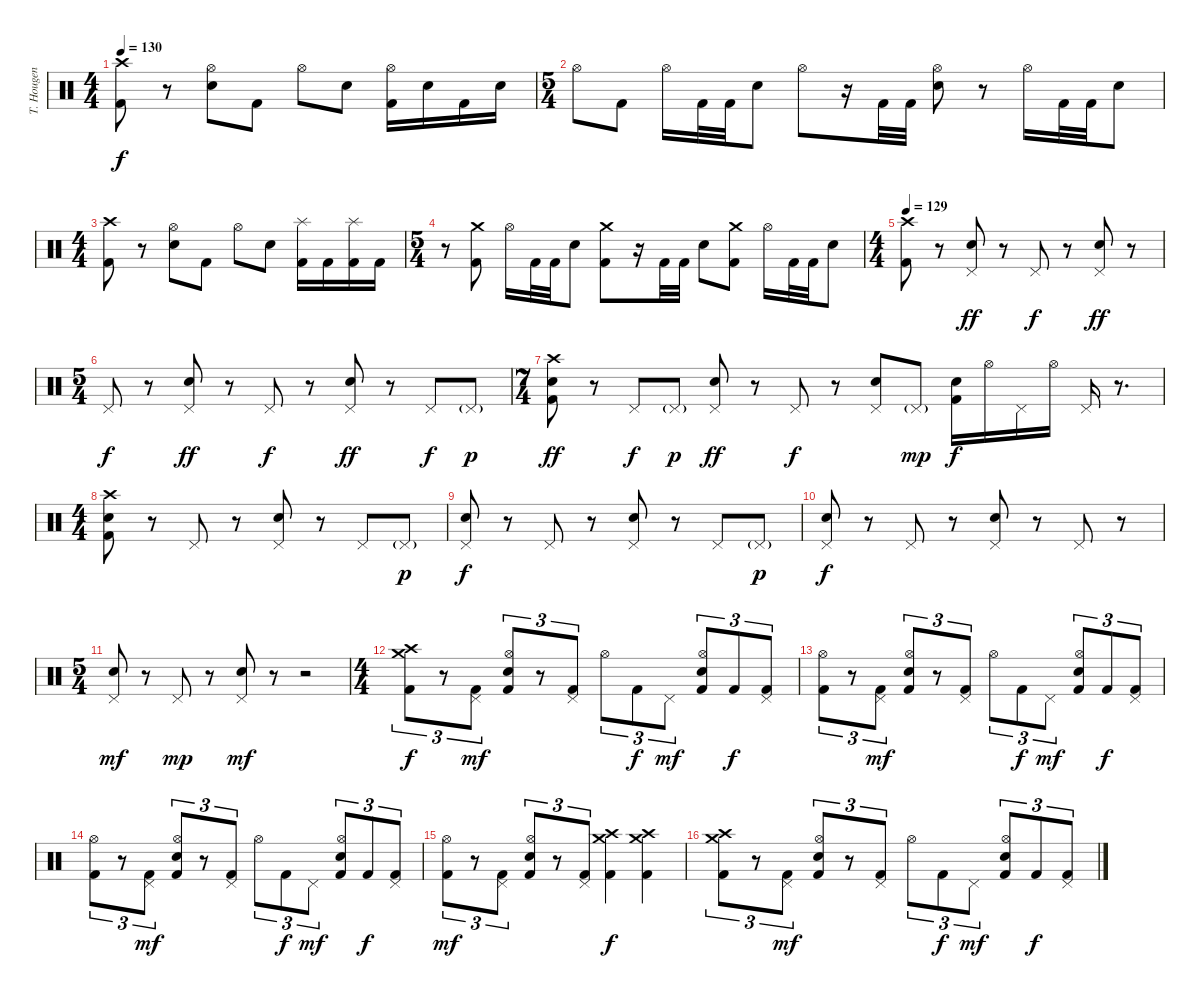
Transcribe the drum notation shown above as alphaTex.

\track ("T. Hougen - Drums" "T. Hougen ") {instrument percussion}
\staff {score}
\articulation defaults
\ts (4 4)
\tempo 130
\clef neutral
\ks c
("Crash high (hit)" "Kick (hit) 2").8{dy f} r.8 ("Hi-Hat (open)" "Electric Snare (hit)").8 "Kick (hit) 2".8 "Hi-Hat (open)".8 "Electric Snare (hit)".8 ("Hi-Hat (open)" "Kick (hit) 2").16 "Electric Snare (hit)".16 "Kick (hit) 2".16 "Electric Snare (hit)".16 |
\ts (5 4)
"Hi-Hat (open)".8 "Kick (hit) 2".8 "Hi-Hat (open)".16 "Kick (hit) 2".32 "Kick (hit) 2".32 "Electric Snare (hit)".8 "Hi-Hat (open)".8 r.16 "Kick (hit) 2".32 "Kick (hit) 2".32 ("Hi-Hat (open)" "Electric Snare (hit)").8 r.8 "Hi-Hat (open)".16 "Kick (hit) 2".32 "Kick (hit) 2".32 "Electric Snare (hit)".8 |
\ts (4 4)
("Crash high (hit)" "Kick (hit) 2").8 r.8 ("Hi-Hat (open)" "Electric Snare (hit)").8 "Kick (hit) 2".8 "Hi-Hat (open)".8 "Electric Snare (hit)".8 ("Splash (hit)" "Kick (hit) 2").16 "Kick (hit) 2".16 ("Splash (hit)" "Kick (hit) 2").16 "Kick (hit) 2".16 |
\ts (5 4)
r.8 ("Crash medium (hit)" "Kick (hit) 2").8 "Hi-Hat (open)".16 "Kick (hit) 2".32 "Kick (hit) 2".32 "Electric Snare (hit)".8 ("Crash medium (hit)" "Kick (hit) 2").8 r.16 "Kick (hit) 2".32 "Kick (hit) 2".32 "Electric Snare (hit)".8 ("Crash medium (hit)" "Kick (hit) 2").8 "Hi-Hat (open)".16 "Kick (hit) 2".32 "Kick (hit) 2".32 "Electric Snare (hit)".8 |
\ts (4 4)
\tempo 129
("Crash high (hit)" "Kick (hit) 2").8 r.8 ("Pedal Hi-Hat (hit)" "Electric Snare (hit)").8{dy ff} r.8 "Pedal Hi-Hat (hit)".8{dy f} r.8 ("Pedal Hi-Hat (hit)" "Electric Snare (hit)").8{dy ff} r.8 |
\ts (5 4)
"Pedal Hi-Hat (hit)".8{dy f} r.8 ("Pedal Hi-Hat (hit)" "Electric Snare (hit)").8{dy ff} r.8 "Pedal Hi-Hat (hit)".8{dy f} r.8 ("Pedal Hi-Hat (hit)" "Electric Snare (hit)").8{dy ff} r.8 "Pedal Hi-Hat (hit)".8{dy f} "Pedal Hi-Hat (hit)"{g}.8{dy p} |
\ts (7 4)
("Crash high (hit)" "Electric Snare (hit)" "Kick (hit) 2").8{dy ff} r.8 "Pedal Hi-Hat (hit)".8{dy f} "Pedal Hi-Hat (hit)"{g}.8{dy p} ("Pedal Hi-Hat (hit)" "Electric Snare (hit)").8{dy ff} r.8 "Pedal Hi-Hat (hit)".8{dy f} r.8 ("Pedal Hi-Hat (hit)" "Electric Snare (hit)").8 "Pedal Hi-Hat (hit)"{g}.8{dy mp} ("Electric Snare (hit)" "Kick (hit) 2").16{dy f} "Hi-Hat (open)".16 "Pedal Hi-Hat (hit)".16 "Hi-Hat (open)".16 "Pedal Hi-Hat (hit)".16 r.8{d} |
\ts (4 4)
("Crash high (hit)" "Electric Snare (hit)" "Kick (hit) 2").8 r.8 "Pedal Hi-Hat (hit)".8 r.8 ("Pedal Hi-Hat (hit)" "Electric Snare (hit)").8 r.8 "Pedal Hi-Hat (hit)".8 "Pedal Hi-Hat (hit)"{g}.8{dy p} |
("Pedal Hi-Hat (hit)" "Electric Snare (hit)").8{dy f} r.8 "Pedal Hi-Hat (hit)".8 r.8 ("Pedal Hi-Hat (hit)" "Electric Snare (hit)").8 r.8 "Pedal Hi-Hat (hit)".8 "Pedal Hi-Hat (hit)"{g}.8{dy p} |
("Pedal Hi-Hat (hit)" "Electric Snare (hit)").8{dy f} r.8 "Pedal Hi-Hat (hit)".8 r.8 ("Pedal Hi-Hat (hit)" "Electric Snare (hit)").8 r.8 "Pedal Hi-Hat (hit)".8 r.8 |
\ts (5 4)
("Pedal Hi-Hat (hit)" "Electric Snare (hit)").8{dy mf} r.8 "Pedal Hi-Hat (hit)".8{dy mp} r.8 ("Pedal Hi-Hat (hit)" "Electric Snare (hit)").8{dy mf} r.8 r.2 |
\ts (4 4)
("Crash medium (hit)" "Crash high (hit)" "Kick (hit) 2").8{tu (3 2) dy f} r.8{tu (3 2)} ("Pedal Hi-Hat (hit)" "Kick (hit) 2").8{tu (3 2) dy mf} ("Hi-Hat (open)" "Electric Snare (hit)" "Kick (hit) 2").8{tu (3 2)} r.8{tu (3 2)} ("Pedal Hi-Hat (hit)" "Kick (hit) 2").8{tu (3 2)} "Hi-Hat (open)".8{tu (3 2)} "Kick (hit) 2".8{tu (3 2) dy f} "Pedal Hi-Hat (hit)".8{tu (3 2) dy mf} ("Hi-Hat (open)" "Electric Snare (hit)" "Kick (hit) 2").8{tu (3 2)} "Kick (hit) 2".8{tu (3 2) dy f} ("Pedal Hi-Hat (hit)" "Kick (hit) 2").8{tu (3 2)} |
("Hi-Hat (open)" "Kick (hit) 2").8{tu (3 2)} r.8{tu (3 2)} ("Pedal Hi-Hat (hit)" "Kick (hit) 2").8{tu (3 2) dy mf} ("Hi-Hat (open)" "Electric Snare (hit)" "Kick (hit) 2").8{tu (3 2)} r.8{tu (3 2)} ("Pedal Hi-Hat (hit)" "Kick (hit) 2").8{tu (3 2)} "Hi-Hat (open)".8{tu (3 2)} "Kick (hit) 2".8{tu (3 2) dy f} "Pedal Hi-Hat (hit)".8{tu (3 2) dy mf} ("Hi-Hat (open)" "Electric Snare (hit)" "Kick (hit) 2").8{tu (3 2)} "Kick (hit) 2".8{tu (3 2) dy f} ("Pedal Hi-Hat (hit)" "Kick (hit) 2").8{tu (3 2)} |
("Hi-Hat (open)" "Kick (hit) 2").8{tu (3 2)} r.8{tu (3 2)} ("Pedal Hi-Hat (hit)" "Kick (hit) 2").8{tu (3 2) dy mf} ("Hi-Hat (open)" "Electric Snare (hit)" "Kick (hit) 2").8{tu (3 2)} r.8{tu (3 2)} ("Pedal Hi-Hat (hit)" "Kick (hit) 2").8{tu (3 2)} "Hi-Hat (open)".8{tu (3 2)} "Kick (hit) 2".8{tu (3 2) dy f} "Pedal Hi-Hat (hit)".8{tu (3 2) dy mf} ("Hi-Hat (open)" "Electric Snare (hit)" "Kick (hit) 2").8{tu (3 2)} "Kick (hit) 2".8{tu (3 2) dy f} ("Pedal Hi-Hat (hit)" "Kick (hit) 2").8{tu (3 2)} |
("Hi-Hat (open)" "Kick (hit) 2").8{tu (3 2) dy mf} r.8{tu (3 2)} ("Pedal Hi-Hat (hit)" "Kick (hit) 2").8{tu (3 2)} ("Hi-Hat (open)" "Electric Snare (hit)" "Kick (hit) 2").8{tu (3 2)} r.8{tu (3 2)} ("Pedal Hi-Hat (hit)" "Kick (hit) 2").8{tu (3 2)} ("Crash medium (hit)" "Crash high (hit)" "Kick (hit) 2").4{dy f} ("Crash medium (hit)" "Crash high (hit)" "Kick (hit) 2").4 |
("Crash medium (hit)" "Crash high (hit)" "Kick (hit) 2").8{tu (3 2)} r.8{tu (3 2)} ("Pedal Hi-Hat (hit)" "Kick (hit) 2").8{tu (3 2) dy mf} ("Hi-Hat (open)" "Electric Snare (hit)" "Kick (hit) 2").8{tu (3 2)} r.8{tu (3 2)} ("Pedal Hi-Hat (hit)" "Kick (hit) 2").8{tu (3 2)} "Hi-Hat (open)".8{tu (3 2)} "Kick (hit) 2".8{tu (3 2) dy f} "Pedal Hi-Hat (hit)".8{tu (3 2) dy mf} ("Hi-Hat (open)" "Electric Snare (hit)" "Kick (hit) 2").8{tu (3 2)} "Kick (hit) 2".8{tu (3 2) dy f} ("Pedal Hi-Hat (hit)" "Kick (hit) 2").8{tu (3 2)}
